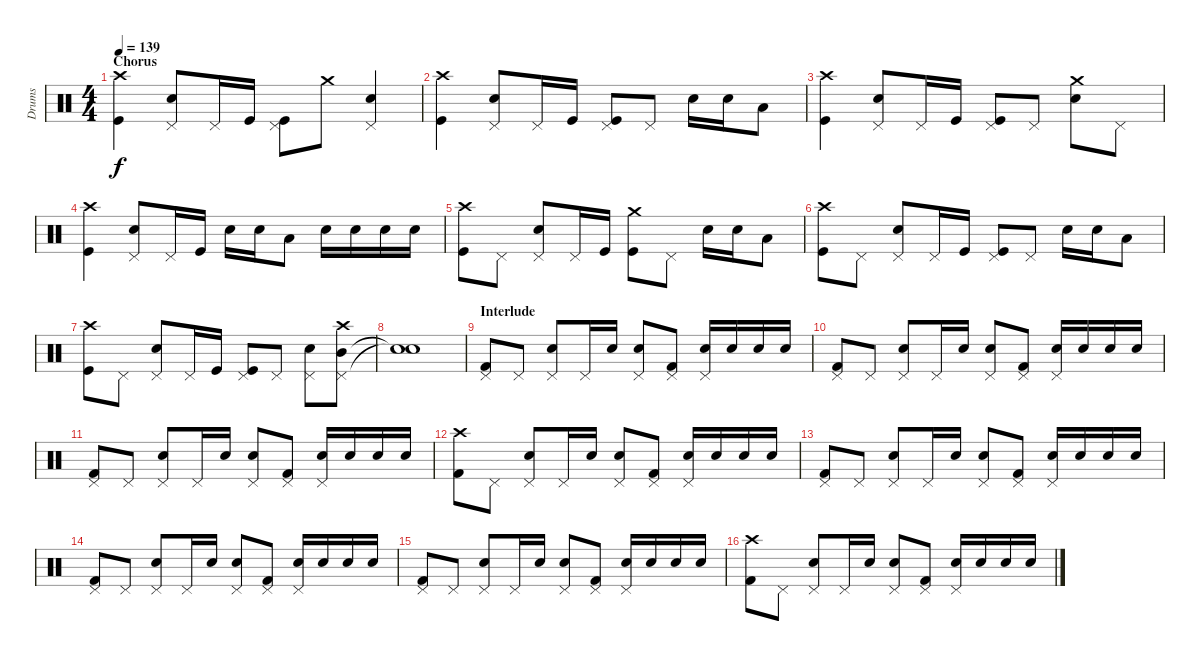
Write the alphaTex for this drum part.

\track ("Drums" "Drums") {instrument percussion}
\staff {score}
\articulation defaults
\ts (4 4)
\section ("" "Chorus")
\tempo 139
\clef neutral
\ks c
("Crash high (hit)" "Kick (hit)").4{dy f} ("Pedal Hi-Hat (hit)" "Electric Snare (hit)").8 "Pedal Hi-Hat (hit)".16 "Kick (hit)".16 ("Pedal Hi-Hat (hit)" "Kick (hit)").8 "Crash medium (hit)".8 ("Pedal Hi-Hat (hit)" "Electric Snare (hit)").4 |
("Crash high (hit)" "Kick (hit)").4 ("Pedal Hi-Hat (hit)" "Electric Snare (hit)").8 "Pedal Hi-Hat (hit)".16 "Kick (hit)".16 ("Pedal Hi-Hat (hit)" "Kick (hit)").8 "Pedal Hi-Hat (hit)".8 "Electric Snare (hit)".16 "Electric Snare (hit)".16 "Low Tom (hit)".8 |
("Crash high (hit)" "Kick (hit)").4 ("Pedal Hi-Hat (hit)" "Electric Snare (hit)").8 "Pedal Hi-Hat (hit)".16 "Kick (hit)".16 ("Pedal Hi-Hat (hit)" "Kick (hit)").8 "Pedal Hi-Hat (hit)".8 ("Crash medium (hit)" "Electric Snare (hit)").8 "Pedal Hi-Hat (hit)".8 |
("Crash high (hit)" "Kick (hit)").4 ("Pedal Hi-Hat (hit)" "Electric Snare (hit)").8 "Pedal Hi-Hat (hit)".16 "Kick (hit)".16 "Electric Snare (hit)".16 "Electric Snare (hit)".16 "Low Tom (hit)".8 "Electric Snare (hit)".16 "Electric Snare (hit)".16 "Electric Snare (hit)".16 "Electric Snare (hit)".16 |
("Crash high (hit)" "Kick (hit)").8 "Pedal Hi-Hat (hit)".8 ("Pedal Hi-Hat (hit)" "Electric Snare (hit)").8 "Pedal Hi-Hat (hit)".16 "Kick (hit)".16 ("Crash medium (hit)" "Kick (hit)").8 "Pedal Hi-Hat (hit)".8 "Electric Snare (hit)".16 "Electric Snare (hit)".16 "Low Tom (hit)".8 |
("Crash high (hit)" "Kick (hit)").8 "Pedal Hi-Hat (hit)".8 ("Pedal Hi-Hat (hit)" "Electric Snare (hit)").8 "Pedal Hi-Hat (hit)".16 "Kick (hit)".16 ("Pedal Hi-Hat (hit)" "Kick (hit)").8 "Pedal Hi-Hat (hit)".8 "Electric Snare (hit)".16 "Electric Snare (hit)".16 "Low Tom (hit)".8 |
("Crash high (hit)" "Kick (hit)").8 "Pedal Hi-Hat (hit)".8 ("Pedal Hi-Hat (hit)" "Electric Snare (hit)").8 "Pedal Hi-Hat (hit)".16 "Kick (hit)".16 ("Pedal Hi-Hat (hit)" "Kick (hit)").8 "Pedal Hi-Hat (hit)".8 ("Pedal Hi-Hat (hit)" "Electric Snare (hit)").8 ("Pedal Hi-Hat (hit)" "Mid Tom (hit)" "Crash high (hit)").8 |
("Snare (hit)"{t} "Snare (hit)"{t}).1 |
\section ("" "Interlude")
("Pedal Hi-Hat (hit)" "Kick (hit) 2").8 "Pedal Hi-Hat (hit)".8 ("Pedal Hi-Hat (hit)" "Electric Snare (hit)").8 "Pedal Hi-Hat (hit)".16 "Electric Snare (hit)".16 ("Pedal Hi-Hat (hit)" "Electric Snare (hit)").8 ("Pedal Hi-Hat (hit)" "Kick (hit) 2").8 ("Pedal Hi-Hat (hit)" "Electric Snare (hit)").16 "Electric Snare (hit)".16 "Electric Snare (hit)".16 "Electric Snare (hit)".16 |
("Pedal Hi-Hat (hit)" "Kick (hit) 2").8 "Pedal Hi-Hat (hit)".8 ("Pedal Hi-Hat (hit)" "Electric Snare (hit)").8 "Pedal Hi-Hat (hit)".16 "Electric Snare (hit)".16 ("Pedal Hi-Hat (hit)" "Electric Snare (hit)").8 ("Pedal Hi-Hat (hit)" "Kick (hit) 2").8 ("Pedal Hi-Hat (hit)" "Electric Snare (hit)").16 "Electric Snare (hit)".16 "Electric Snare (hit)".16 "Electric Snare (hit)".16 |
("Pedal Hi-Hat (hit)" "Kick (hit) 2").8 "Pedal Hi-Hat (hit)".8 ("Pedal Hi-Hat (hit)" "Electric Snare (hit)").8 "Pedal Hi-Hat (hit)".16 "Electric Snare (hit)".16 ("Pedal Hi-Hat (hit)" "Electric Snare (hit)").8 ("Pedal Hi-Hat (hit)" "Kick (hit) 2").8 ("Pedal Hi-Hat (hit)" "Electric Snare (hit)").16 "Electric Snare (hit)".16 "Electric Snare (hit)".16 "Electric Snare (hit)".16 |
("Crash high (hit)" "Kick (hit) 2").8 "Pedal Hi-Hat (hit)".8 ("Pedal Hi-Hat (hit)" "Electric Snare (hit)").8 "Pedal Hi-Hat (hit)".16 "Electric Snare (hit)".16 ("Pedal Hi-Hat (hit)" "Electric Snare (hit)").8 ("Pedal Hi-Hat (hit)" "Kick (hit) 2").8 ("Pedal Hi-Hat (hit)" "Electric Snare (hit)").16 "Electric Snare (hit)".16 "Electric Snare (hit)".16 "Electric Snare (hit)".16 |
("Pedal Hi-Hat (hit)" "Kick (hit) 2").8 "Pedal Hi-Hat (hit)".8 ("Pedal Hi-Hat (hit)" "Electric Snare (hit)").8 "Pedal Hi-Hat (hit)".16 "Electric Snare (hit)".16 ("Pedal Hi-Hat (hit)" "Electric Snare (hit)").8 ("Pedal Hi-Hat (hit)" "Kick (hit) 2").8 ("Pedal Hi-Hat (hit)" "Electric Snare (hit)").16 "Electric Snare (hit)".16 "Electric Snare (hit)".16 "Electric Snare (hit)".16 |
("Pedal Hi-Hat (hit)" "Kick (hit) 2").8 "Pedal Hi-Hat (hit)".8 ("Pedal Hi-Hat (hit)" "Electric Snare (hit)").8 "Pedal Hi-Hat (hit)".16 "Electric Snare (hit)".16 ("Pedal Hi-Hat (hit)" "Electric Snare (hit)").8 ("Pedal Hi-Hat (hit)" "Kick (hit) 2").8 ("Pedal Hi-Hat (hit)" "Electric Snare (hit)").16 "Electric Snare (hit)".16 "Electric Snare (hit)".16 "Electric Snare (hit)".16 |
("Pedal Hi-Hat (hit)" "Kick (hit) 2").8 "Pedal Hi-Hat (hit)".8 ("Pedal Hi-Hat (hit)" "Electric Snare (hit)").8 "Pedal Hi-Hat (hit)".16 "Electric Snare (hit)".16 ("Pedal Hi-Hat (hit)" "Electric Snare (hit)").8 ("Pedal Hi-Hat (hit)" "Kick (hit) 2").8 ("Pedal Hi-Hat (hit)" "Electric Snare (hit)").16 "Electric Snare (hit)".16 "Electric Snare (hit)".16 "Electric Snare (hit)".16 |
("Crash high (hit)" "Kick (hit) 2").8 "Pedal Hi-Hat (hit)".8 ("Pedal Hi-Hat (hit)" "Electric Snare (hit)").8 "Pedal Hi-Hat (hit)".16 "Electric Snare (hit)".16 ("Pedal Hi-Hat (hit)" "Electric Snare (hit)").8 ("Pedal Hi-Hat (hit)" "Kick (hit) 2").8 ("Pedal Hi-Hat (hit)" "Electric Snare (hit)").16 "Electric Snare (hit)".16 "Electric Snare (hit)".16 "Electric Snare (hit)".16
